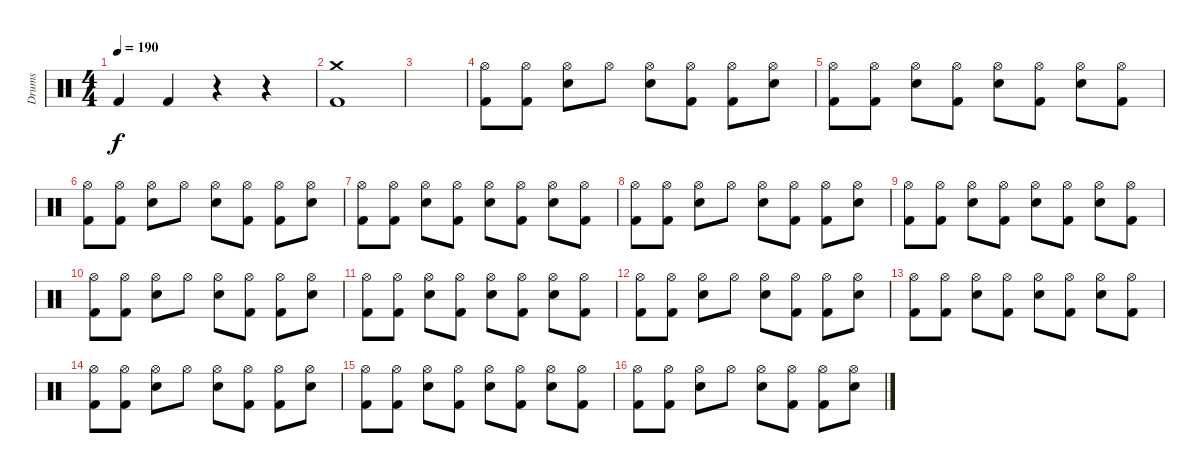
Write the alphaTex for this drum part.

\track ("Drums" "Drums") {instrument percussion}
\staff {score}
\articulation defaults
\ts (4 4)
\tempo 190
\clef neutral
\ks c "Kick (hit) 2".4{dy f} "Kick (hit) 2".4
r.4 r.4 |
("Kick (hit) 2" "Crash medium (hit)").1 |
|
("Kick (hit) 2" "Hi-Hat (open)").8 ("Kick (hit) 2" "Hi-Hat (open)").8 ("Snare (hit) 2" "Hi-Hat (open)").8 "Hi-Hat (open)".8 ("Snare (hit) 2" "Hi-Hat (open)").8 ("Kick (hit) 2" "Hi-Hat (open)").8 ("Kick (hit) 2" "Hi-Hat (open)").8 ("Snare (hit) 2" "Hi-Hat (open)").8 |
("Kick (hit) 2" "Hi-Hat (open)").8 ("Kick (hit) 2" "Hi-Hat (open)").8 ("Snare (hit) 2" "Hi-Hat (open)").8 ("Kick (hit) 2" "Hi-Hat (open)").8 ("Snare (hit) 2" "Hi-Hat (open)").8 ("Kick (hit) 2" "Hi-Hat (open)").8 ("Snare (hit) 2" "Hi-Hat (open)").8 ("Kick (hit) 2" "Hi-Hat (open)").8 |
("Kick (hit) 2" "Hi-Hat (open)").8 ("Kick (hit) 2" "Hi-Hat (open)").8 ("Snare (hit) 2" "Hi-Hat (open)").8 "Hi-Hat (open)".8 ("Snare (hit) 2" "Hi-Hat (open)").8 ("Kick (hit) 2" "Hi-Hat (open)").8 ("Kick (hit) 2" "Hi-Hat (open)").8 ("Snare (hit) 2" "Hi-Hat (open)").8 |
("Kick (hit) 2" "Hi-Hat (open)").8 ("Kick (hit) 2" "Hi-Hat (open)").8 ("Snare (hit) 2" "Hi-Hat (open)").8 ("Kick (hit) 2" "Hi-Hat (open)").8 ("Snare (hit) 2" "Hi-Hat (open)").8 ("Kick (hit) 2" "Hi-Hat (open)").8 ("Snare (hit) 2" "Hi-Hat (open)").8 ("Kick (hit) 2" "Hi-Hat (open)").8 |
("Kick (hit) 2" "Hi-Hat (open)").8 ("Kick (hit) 2" "Hi-Hat (open)").8 ("Snare (hit) 2" "Hi-Hat (open)").8 "Hi-Hat (open)".8 ("Snare (hit) 2" "Hi-Hat (open)").8 ("Kick (hit) 2" "Hi-Hat (open)").8 ("Kick (hit) 2" "Hi-Hat (open)").8 ("Snare (hit) 2" "Hi-Hat (open)").8 |
("Kick (hit) 2" "Hi-Hat (open)").8 ("Kick (hit) 2" "Hi-Hat (open)").8 ("Snare (hit) 2" "Hi-Hat (open)").8 ("Kick (hit) 2" "Hi-Hat (open)").8 ("Snare (hit) 2" "Hi-Hat (open)").8 ("Kick (hit) 2" "Hi-Hat (open)").8 ("Snare (hit) 2" "Hi-Hat (open)").8 ("Kick (hit) 2" "Hi-Hat (open)").8 |
("Kick (hit) 2" "Hi-Hat (open)").8 ("Kick (hit) 2" "Hi-Hat (open)").8 ("Snare (hit) 2" "Hi-Hat (open)").8 "Hi-Hat (open)".8 ("Snare (hit) 2" "Hi-Hat (open)").8 ("Kick (hit) 2" "Hi-Hat (open)").8 ("Kick (hit) 2" "Hi-Hat (open)").8 ("Snare (hit) 2" "Hi-Hat (open)").8 |
("Kick (hit) 2" "Hi-Hat (open)").8 ("Kick (hit) 2" "Hi-Hat (open)").8 ("Snare (hit) 2" "Hi-Hat (open)").8 ("Kick (hit) 2" "Hi-Hat (open)").8 ("Snare (hit) 2" "Hi-Hat (open)").8 ("Kick (hit) 2" "Hi-Hat (open)").8 ("Snare (hit) 2" "Hi-Hat (open)").8 ("Kick (hit) 2" "Hi-Hat (open)").8 |
("Kick (hit) 2" "Hi-Hat (open)").8 ("Kick (hit) 2" "Hi-Hat (open)").8 ("Snare (hit) 2" "Hi-Hat (open)").8 "Hi-Hat (open)".8 ("Snare (hit) 2" "Hi-Hat (open)").8 ("Kick (hit) 2" "Hi-Hat (open)").8 ("Kick (hit) 2" "Hi-Hat (open)").8 ("Snare (hit) 2" "Hi-Hat (open)").8 |
("Kick (hit) 2" "Hi-Hat (open)").8 ("Kick (hit) 2" "Hi-Hat (open)").8 ("Snare (hit) 2" "Hi-Hat (open)").8 ("Kick (hit) 2" "Hi-Hat (open)").8 ("Snare (hit) 2" "Hi-Hat (open)").8 ("Kick (hit) 2" "Hi-Hat (open)").8 ("Snare (hit) 2" "Hi-Hat (open)").8 ("Kick (hit) 2" "Hi-Hat (open)").8 |
("Kick (hit) 2" "Hi-Hat (open)").8 ("Kick (hit) 2" "Hi-Hat (open)").8 ("Snare (hit) 2" "Hi-Hat (open)").8 "Hi-Hat (open)".8 ("Snare (hit) 2" "Hi-Hat (open)").8 ("Kick (hit) 2" "Hi-Hat (open)").8 ("Kick (hit) 2" "Hi-Hat (open)").8 ("Snare (hit) 2" "Hi-Hat (open)").8 |
("Kick (hit) 2" "Hi-Hat (open)").8 ("Kick (hit) 2" "Hi-Hat (open)").8 ("Snare (hit) 2" "Hi-Hat (open)").8 ("Kick (hit) 2" "Hi-Hat (open)").8 ("Snare (hit) 2" "Hi-Hat (open)").8 ("Kick (hit) 2" "Hi-Hat (open)").8 ("Snare (hit) 2" "Hi-Hat (open)").8 ("Kick (hit) 2" "Hi-Hat (open)").8 |
("Kick (hit) 2" "Hi-Hat (open)").8 ("Kick (hit) 2" "Hi-Hat (open)").8 ("Snare (hit) 2" "Hi-Hat (open)").8 "Hi-Hat (open)".8 ("Snare (hit) 2" "Hi-Hat (open)").8 ("Kick (hit) 2" "Hi-Hat (open)").8 ("Kick (hit) 2" "Hi-Hat (open)").8 ("Snare (hit) 2" "Hi-Hat (open)").8
